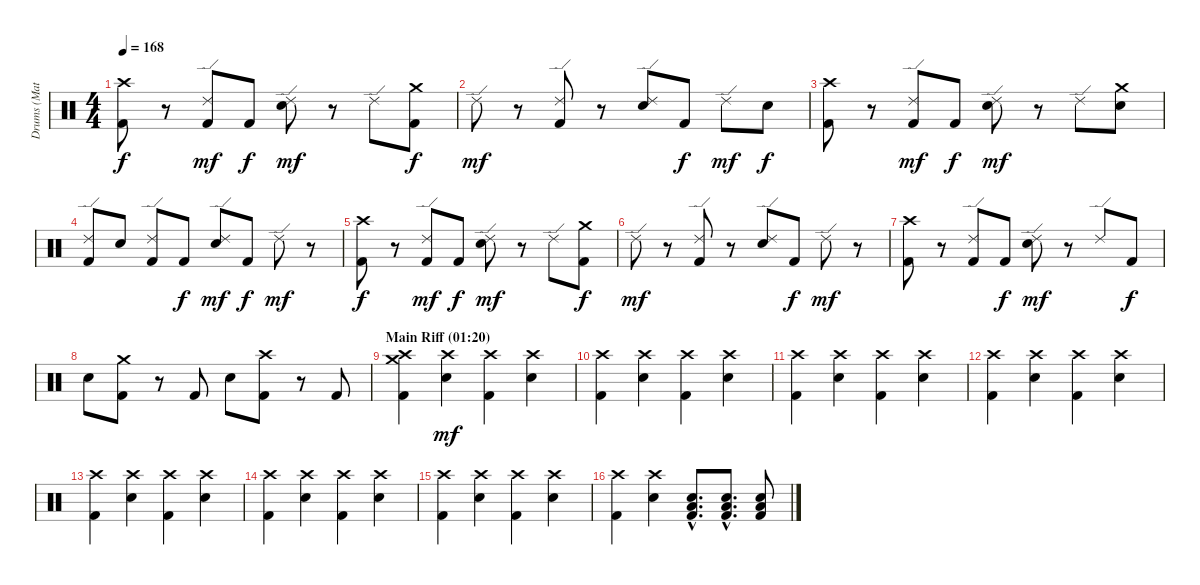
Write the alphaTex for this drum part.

\track ("Drums (Matt Sorum)" "Drums (Mat") {instrument percussion}
\staff {score}
\articulation defaults
\ts (4 4)
\tempo 168
\clef neutral
\ks c
("Crash high (hit)" "Kick (hit) 2").8{dy f} r.8 ("Ride (edge) 2" "Kick (hit) 2").8{dy mf} "Kick (hit) 2".8{dy f} ("Ride (edge) 2" "Electric Snare (hit)").8{dy mf} r.8 "Ride (edge) 2".8 ("Crash medium (hit)" "Kick (hit) 2").8{dy f} |
"Ride (edge) 2".8{dy mf} r.8 ("Ride (edge) 2" "Kick (hit) 2").8 r.8 ("Ride (edge) 2" "Electric Snare (hit)").8 "Kick (hit) 2".8{dy f} "Ride (edge) 2".8{dy mf} "Electric Snare (hit)".8{dy f} |
("Crash high (hit)" "Kick (hit) 2").8 r.8 ("Ride (edge) 2" "Kick (hit) 2").8{dy mf} "Kick (hit) 2".8{dy f} ("Ride (edge) 2" "Electric Snare (hit)").8{dy mf} r.8 "Ride (edge) 2".8 ("Crash medium (hit)" "Electric Snare (hit)").8 |
("Ride (edge) 2" "Kick (hit) 2").8 "Electric Snare (hit)".8 ("Ride (edge) 2" "Kick (hit) 2").8 "Kick (hit) 2".8{dy f} ("Ride (edge) 2" "Electric Snare (hit)").8{dy mf} "Kick (hit) 2".8{dy f} "Ride (edge) 2".8{dy mf} r.8 |
("Crash high (hit)" "Kick (hit) 2").8{dy f} r.8 ("Ride (edge) 2" "Kick (hit) 2").8{dy mf} "Kick (hit) 2".8{dy f} ("Ride (edge) 2" "Electric Snare (hit)").8{dy mf} r.8 "Ride (edge) 2".8 ("Crash medium (hit)" "Kick (hit) 2").8{dy f} |
"Ride (edge) 2".8{dy mf} r.8 ("Ride (edge) 2" "Kick (hit) 2").8 r.8 ("Ride (edge) 2" "Electric Snare (hit)").8 "Kick (hit) 2".8{dy f} "Ride (edge) 2".8{dy mf} r.8 |
("Crash high (hit)" "Kick (hit) 2").8 r.8 ("Ride (edge) 2" "Kick (hit) 2").8 "Kick (hit) 2".8{dy f} ("Ride (edge) 2" "Electric Snare (hit)").8{dy mf} r.8 "Ride (edge) 2".8 "Kick (hit) 2".8{dy f} |
"Electric Snare (hit)".8 ("Crash medium (hit)" "Kick (hit) 2").8 r.8 "Kick (hit) 2".8 "Electric Snare (hit)".8 ("Crash high (hit)" "Kick (hit) 2").8 r.8 "Kick (hit) 2".8 |
\section ("" "Main Riff (01:20)")
("Crash high (hit)" "Crash medium (hit)" "Kick (hit) 2").4 ("Crash high (hit)" "Electric Snare (hit)").4{dy mf} ("Crash high (hit)" "Kick (hit) 2").4 ("Crash high (hit)" "Electric Snare (hit)").4 |
("Crash high (hit)" "Kick (hit) 2").4 ("Crash high (hit)" "Electric Snare (hit)").4 ("Crash high (hit)" "Kick (hit) 2").4 ("Crash high (hit)" "Electric Snare (hit)").4 |
("Crash high (hit)" "Kick (hit) 2").4 ("Crash high (hit)" "Electric Snare (hit)").4 ("Crash high (hit)" "Kick (hit) 2").4 ("Crash high (hit)" "Electric Snare (hit)").4 |
("Crash high (hit)" "Kick (hit) 2").4 ("Crash high (hit)" "Electric Snare (hit)").4 ("Crash high (hit)" "Kick (hit) 2").4 ("Crash high (hit)" "Electric Snare (hit)").4 |
("Crash high (hit)" "Kick (hit) 2").4 ("Crash high (hit)" "Electric Snare (hit)").4 ("Crash high (hit)" "Kick (hit) 2").4 ("Crash high (hit)" "Electric Snare (hit)").4 |
("Crash high (hit)" "Kick (hit) 2").4 ("Crash high (hit)" "Electric Snare (hit)").4 ("Crash high (hit)" "Kick (hit) 2").4 ("Crash high (hit)" "Electric Snare (hit)").4 |
("Crash high (hit)" "Kick (hit) 2").4 ("Crash high (hit)" "Electric Snare (hit)").4 ("Crash high (hit)" "Kick (hit) 2").4 ("Crash high (hit)" "Electric Snare (hit)").4 |
("Crash high (hit)" "Kick (hit) 2").4 ("Crash high (hit)" "Electric Snare (hit)").4 ("Electric Snare (hit)"{hac} "Low Tom (hit)"{hac} "Kick (hit) 2"{hac}).8{d} ("Electric Snare (hit)"{hac} "Low Tom (hit)"{hac} "Kick (hit) 2"{hac}).8{d} ("Electric Snare (hit)" "Low Tom (hit)" "Kick (hit) 2").8
